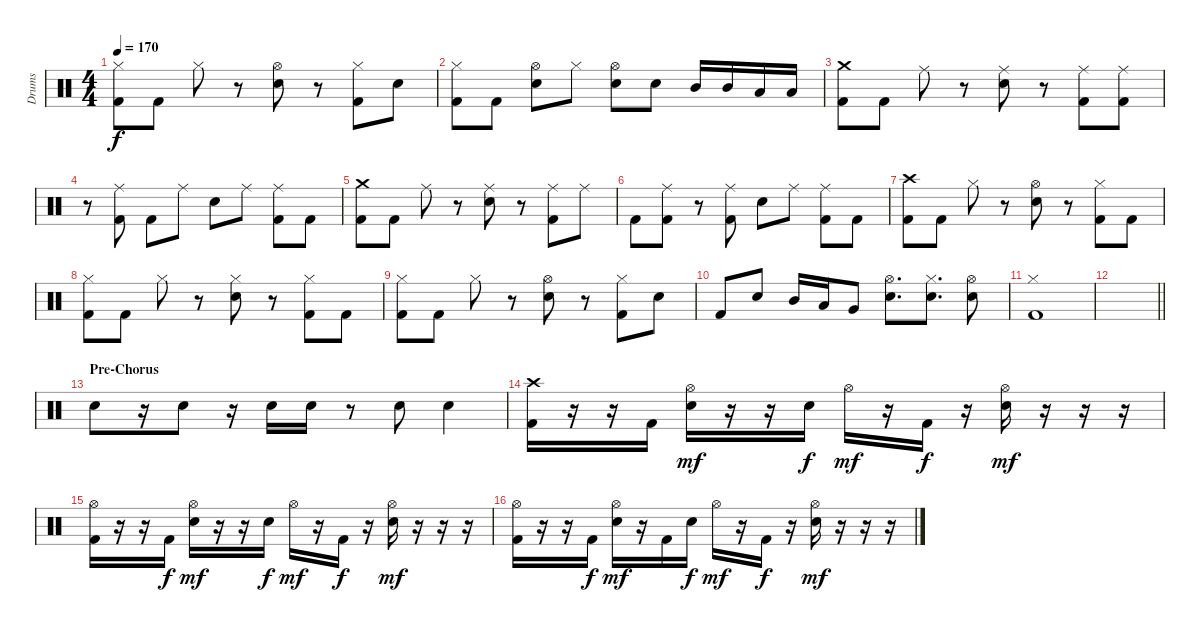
\track ("Drums" "Drums") {instrument percussion}
\staff {score}
\articulation defaults
\ts (4 4)
\tempo 170
\clef neutral
\ks c
("Hi-Hat (closed)" "Kick (hit) 2").8{dy f} "Kick (hit) 2".8 "Hi-Hat (closed)".8 r.8 ("Snare (hit) 2" "Hi-Hat (open)").8 r.8 ("Hi-Hat (closed)" "Kick (hit) 2").8 "Snare (hit) 2".8 |
("Hi-Hat (closed)" "Kick (hit) 2").8 "Kick (hit) 2".8 ("Snare (hit) 2" "Hi-Hat (open)").8 "Hi-Hat (closed)".8 ("Snare (hit) 2" "Hi-Hat (open)").8 "Snare (hit) 2".8 "Mid Tom (hit)".16 "Mid Tom (hit)".16 "Low Tom (hit)".16 "Low Tom (hit)".16 |
("Crash medium (hit)" "Kick (hit) 2").8 "Kick (hit) 2".8 "Ride (middle)".8 r.8 ("Snare (hit) 2" "Ride (middle)").8 r.8 ("Ride (middle)" "Kick (hit) 2").8 ("Ride (middle)" "Kick (hit) 2").8 |
r.8 ("Ride (middle)" "Kick (hit) 2").8 "Kick (hit) 2".8 "Ride (middle)".8 "Snare (hit) 2".8 "Ride (middle)".8 ("Ride (middle)" "Kick (hit) 2").8 "Kick (hit) 2".8 |
("Crash medium (hit)" "Kick (hit) 2").8 "Kick (hit) 2".8 "Ride (middle)".8 r.8 ("Snare (hit) 2" "Ride (middle)").8 r.8 ("Ride (middle)" "Kick (hit) 2").8 "Ride (middle)".8 |
"Kick (hit) 2".8 ("Ride (middle)" "Kick (hit) 2").8 r.8 ("Ride (middle)" "Kick (hit) 2").8 "Snare (hit) 2".8 "Ride (middle)".8 ("Ride (middle)" "Kick (hit) 2").8 "Kick (hit) 2".8 |
("Crash high (hit)" "Kick (hit) 2").8 "Kick (hit) 2".8 "Hi-Hat (closed)".8 r.8 ("Snare (hit) 2" "Hi-Hat (open)").8 r.8 ("Hi-Hat (closed)" "Kick (hit) 2").8 "Kick (hit) 2".8 |
("Hi-Hat (closed)" "Kick (hit) 2").8 "Kick (hit) 2".8 "Hi-Hat (closed)".8 r.8 ("Snare (hit) 2" "Hi-Hat (closed)").8 r.8 ("Hi-Hat (closed)" "Kick (hit) 2").8 "Kick (hit) 2".8 |
("Hi-Hat (closed)" "Kick (hit) 2").8 "Kick (hit) 2".8 "Hi-Hat (closed)".8 r.8 ("Snare (hit) 2" "Hi-Hat (open)").8 r.8 ("Hi-Hat (closed)" "Kick (hit) 2").8 "Snare (hit) 2".8 |
"Kick (hit) 2".8 "Snare (hit) 2".8 "Mid Tom (hit)".16 "Low Tom (hit)".16 "Very Low Tom (hit)".8 ("Snare (hit) 2" "Hi-Hat (open)").8{d} ("Snare (hit) 2" "Hi-Hat (closed)").8{d} ("Snare (hit) 2" "Hi-Hat (open)").8 |
("Hi-Hat (closed)" "Kick (hit) 2").1 |
\barLineRight lightlight
|
\section ("" "Pre-Chorus")
"Snare (hit) 2".8 r.16 "Snare (hit) 2".8 r.16 "Snare (hit) 2".16 "Snare (hit) 2".16 r.8 "Snare (hit) 2".8 "Snare (hit) 2".4 |
("Crash high (hit)" "Kick (hit) 2").16 r.16 r.16 "Kick (hit) 2".16 ("Snare (hit) 2" "Hi-Hat (open)").16{dy mf} r.16 r.16 "Snare (hit) 2".16{dy f} "Hi-Hat (open)".16{dy mf} r.16 "Kick (hit) 2".16{dy f} r.16 ("Snare (hit) 2" "Hi-Hat (open)").16{dy mf} r.16 r.16 r.16 |
("Hi-Hat (open)" "Kick (hit) 2").16 r.16 r.16 "Kick (hit) 2".16{dy f} ("Snare (hit) 2" "Hi-Hat (open)").16{dy mf} r.16 r.16 "Snare (hit) 2".16{dy f} "Hi-Hat (open)".16{dy mf} r.16 "Kick (hit) 2".16{dy f} r.16 ("Snare (hit) 2" "Hi-Hat (open)").16{dy mf} r.16 r.16 r.16 |
("Hi-Hat (open)" "Kick (hit) 2").16 r.16 r.16 "Kick (hit) 2".16{dy f} ("Snare (hit) 2" "Hi-Hat (open)").16{dy mf} r.16 "Kick (hit) 2".16 "Snare (hit) 2".16{dy f} "Hi-Hat (open)".16{dy mf} r.16 "Kick (hit) 2".16{dy f} r.16 ("Snare (hit) 2" "Hi-Hat (open)").16{dy mf} r.16 r.16 r.16
